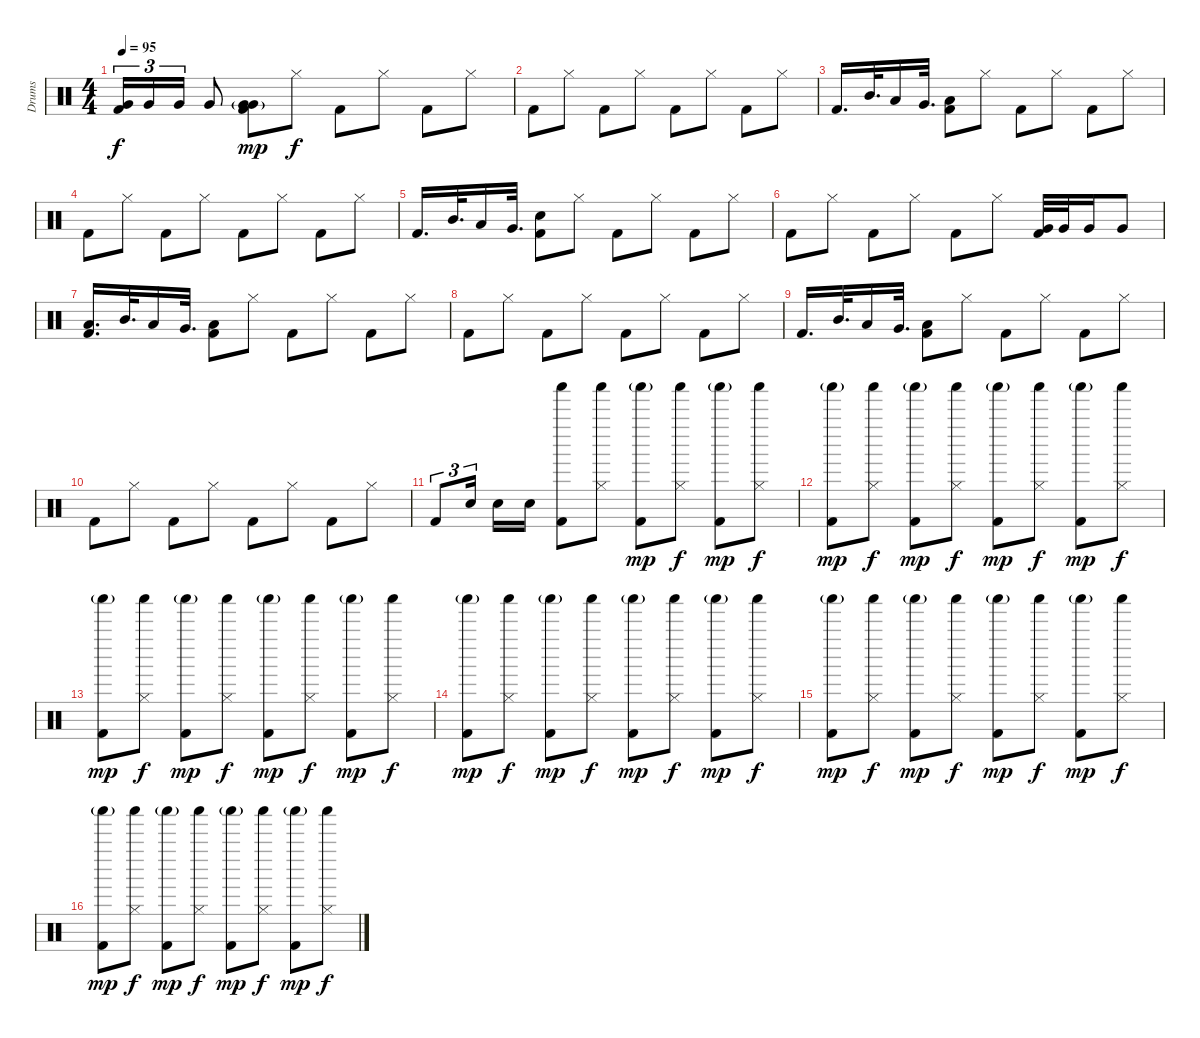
\track ("Drums" "Drums") {instrument percussion}
\staff {score}
\articulation defaults
\ts (4 4)
\tempo 95
\clef neutral
\ks c
("Very Low Tom (hit)" "Kick (hit) 2").16{tu (3 2) dy f} "Very Low Tom (hit)".16{tu (3 2)} "Very Low Tom (hit)".16{tu (3 2)} "Very Low Tom (hit)".8 ("Very Low Tom (hit)"{g} "Very Low Tom (hit)" "Kick (hit) 2").8{dy mp} "Hi-Hat (closed)".8{dy f} "Kick (hit) 2".8 "Hi-Hat (closed)".8 "Kick (hit) 2".8 "Hi-Hat (closed)".8 |
"Kick (hit) 2".8 "Hi-Hat (closed)".8 "Kick (hit) 2".8 "Hi-Hat (closed)".8 "Kick (hit) 2".8 "Hi-Hat (closed)".8 "Kick (hit) 2".8 "Hi-Hat (closed)".8 |
"Kick (hit) 2".16{d} "Mid Tom (hit)".32{d} "Low Tom (hit)".16 "Very Low Tom (hit)".32{d} ("Low Floor Tom (hit)" "Kick (hit) 2").8 "Hi-Hat (closed)".8 "Kick (hit) 2".8 "Hi-Hat (closed)".8 "Kick (hit) 2".8 "Hi-Hat (closed)".8 |
"Kick (hit) 2".8 "Hi-Hat (closed)".8 "Kick (hit) 2".8 "Hi-Hat (closed)".8 "Kick (hit) 2".8 "Hi-Hat (closed)".8 "Kick (hit) 2".8 "Hi-Hat (closed)".8 |
"Kick (hit) 2".16{d} "Mid Tom (hit)".32{d} "Low Tom (hit)".16 "Very Low Tom (hit)".32{d} ("Snare (hit) 2" "Kick (hit) 2").8 "Hi-Hat (closed)".8 "Kick (hit) 2".8 "Hi-Hat (closed)".8 "Kick (hit) 2".8 "Hi-Hat (closed)".8 |
"Kick (hit) 2".8 "Hi-Hat (closed)".8 "Kick (hit) 2".8 "Hi-Hat (closed)".8 "Kick (hit) 2".8 "Hi-Hat (closed)".8 ("Very Low Tom (hit)" "Kick (hit) 2").32 "Very Low Tom (hit)".32 "Very Low Tom (hit)".16 "Very Low Tom (hit)".8 |
("Low Floor Tom (hit)" "Kick (hit) 2").16{d} "Mid Tom (hit)".32{d} "Low Tom (hit)".16 "Very Low Tom (hit)".32{d} ("Low Floor Tom (hit)" "Kick (hit) 2").8 "Hi-Hat (closed)".8 "Kick (hit) 2".8 "Hi-Hat (closed)".8 "Kick (hit) 2".8 "Hi-Hat (closed)".8 |
"Kick (hit) 2".8 "Hi-Hat (closed)".8 "Kick (hit) 2".8 "Hi-Hat (closed)".8 "Kick (hit) 2".8 "Hi-Hat (closed)".8 "Kick (hit) 2".8 "Hi-Hat (closed)".8 |
"Kick (hit) 2".16{d} "Mid Tom (hit)".32{d} "Low Tom (hit)".16 "Very Low Tom (hit)".32{d} ("Low Floor Tom (hit)" "Kick (hit) 2").8 "Hi-Hat (closed)".8 "Kick (hit) 2".8 "Hi-Hat (closed)".8 "Kick (hit) 2".8 "Hi-Hat (closed)".8 |
"Kick (hit) 2".8 "Hi-Hat (closed)".8 "Kick (hit) 2".8 "Hi-Hat (closed)".8 "Kick (hit) 2".8 "Hi-Hat (closed)".8 "Kick (hit) 2".8 "Hi-Hat (closed)".8 |
"Kick (hit) 2".8{tu (3 2)} "Snare (hit) 2".16{tu (3 2) beam splitsecondary} "Snare (hit) 2".16 "Snare (hit) 2".16 ("Shaker (hit)" "Kick (hit) 2").8 ("Shaker (hit)" "Hi-Hat (closed)").8 ("Shaker (hit)"{g} "Kick (hit) 2").8{dy mp} ("Shaker (hit)" "Hi-Hat (closed)").8{dy f} ("Shaker (hit)"{g} "Kick (hit) 2").8{dy mp} ("Shaker (hit)" "Hi-Hat (closed)").8{dy f} |
("Shaker (hit)"{g} "Kick (hit) 2").8{dy mp} ("Shaker (hit)" "Hi-Hat (closed)").8{dy f} ("Shaker (hit)"{g} "Kick (hit) 2").8{dy mp} ("Shaker (hit)" "Hi-Hat (closed)").8{dy f} ("Shaker (hit)"{g} "Kick (hit) 2").8{dy mp} ("Shaker (hit)" "Hi-Hat (closed)").8{dy f} ("Shaker (hit)"{g} "Kick (hit) 2").8{dy mp} ("Shaker (hit)" "Hi-Hat (closed)").8{dy f} |
("Shaker (hit)"{g} "Kick (hit) 2").8{dy mp} ("Shaker (hit)" "Hi-Hat (closed)").8{dy f} ("Shaker (hit)"{g} "Kick (hit) 2").8{dy mp} ("Shaker (hit)" "Hi-Hat (closed)").8{dy f} ("Shaker (hit)"{g} "Kick (hit) 2").8{dy mp} ("Shaker (hit)" "Hi-Hat (closed)").8{dy f} ("Shaker (hit)"{g} "Kick (hit) 2").8{dy mp} ("Shaker (hit)" "Hi-Hat (closed)").8{dy f} |
("Shaker (hit)"{g} "Kick (hit) 2").8{dy mp} ("Shaker (hit)" "Hi-Hat (closed)").8{dy f} ("Shaker (hit)"{g} "Kick (hit) 2").8{dy mp} ("Shaker (hit)" "Hi-Hat (closed)").8{dy f} ("Shaker (hit)"{g} "Kick (hit) 2").8{dy mp} ("Shaker (hit)" "Hi-Hat (closed)").8{dy f} ("Shaker (hit)"{g} "Kick (hit) 2").8{dy mp} ("Shaker (hit)" "Hi-Hat (closed)").8{dy f} |
("Shaker (hit)"{g} "Kick (hit) 2").8{dy mp} ("Shaker (hit)" "Hi-Hat (closed)").8{dy f} ("Shaker (hit)"{g} "Kick (hit) 2").8{dy mp} ("Shaker (hit)" "Hi-Hat (closed)").8{dy f} ("Shaker (hit)"{g} "Kick (hit) 2").8{dy mp} ("Shaker (hit)" "Hi-Hat (closed)").8{dy f} ("Shaker (hit)"{g} "Kick (hit) 2").8{dy mp} ("Shaker (hit)" "Hi-Hat (closed)").8{dy f} |
("Shaker (hit)"{g} "Kick (hit) 2").8{dy mp} ("Shaker (hit)" "Hi-Hat (closed)").8{dy f} ("Shaker (hit)"{g} "Kick (hit) 2").8{dy mp} ("Shaker (hit)" "Hi-Hat (closed)").8{dy f} ("Shaker (hit)"{g} "Kick (hit) 2").8{dy mp} ("Shaker (hit)" "Hi-Hat (closed)").8{dy f} ("Shaker (hit)"{g} "Kick (hit) 2").8{dy mp} ("Shaker (hit)" "Hi-Hat (closed)").8{dy f}
